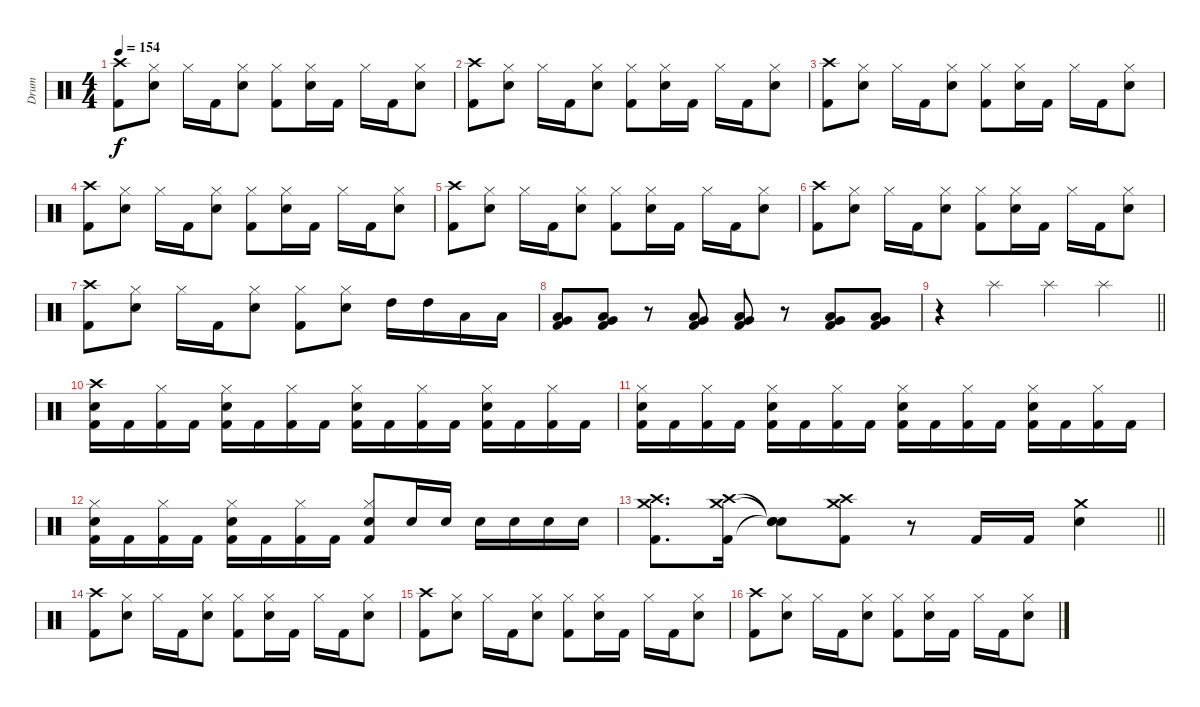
\track ("Drum" "Drum") {instrument percussion}
\staff {score}
\articulation defaults
\ts (4 4)
\tempo 154
\clef neutral
\ks c
("Crash high (hit)" "Kick (hit) 2").8{dy f} ("Hi-Hat (closed)" "Snare (hit) 2").8 "Hi-Hat (closed)".16 "Kick (hit) 2".16 ("Hi-Hat (closed)" "Snare (hit) 2").8 ("Hi-Hat (closed)" "Kick (hit) 2").8 ("Hi-Hat (closed)" "Snare (hit) 2").16 "Kick (hit) 2".16 "Hi-Hat (closed)".16 "Kick (hit) 2".16 ("Hi-Hat (closed)" "Snare (hit) 2").8 |
("Crash high (hit)" "Kick (hit) 2").8 ("Hi-Hat (closed)" "Snare (hit) 2").8 "Hi-Hat (closed)".16 "Kick (hit) 2".16 ("Hi-Hat (closed)" "Snare (hit) 2").8 ("Hi-Hat (closed)" "Kick (hit) 2").8 ("Hi-Hat (closed)" "Snare (hit) 2").16 "Kick (hit) 2".16 "Hi-Hat (closed)".16 "Kick (hit) 2".16 ("Hi-Hat (closed)" "Snare (hit) 2").8 |
("Crash high (hit)" "Kick (hit) 2").8 ("Hi-Hat (closed)" "Snare (hit) 2").8 "Hi-Hat (closed)".16 "Kick (hit) 2".16 ("Hi-Hat (closed)" "Snare (hit) 2").8 ("Hi-Hat (closed)" "Kick (hit) 2").8 ("Hi-Hat (closed)" "Snare (hit) 2").16 "Kick (hit) 2".16 "Hi-Hat (closed)".16 "Kick (hit) 2".16 ("Hi-Hat (closed)" "Snare (hit) 2").8 |
("Crash high (hit)" "Kick (hit) 2").8 ("Hi-Hat (closed)" "Snare (hit) 2").8 "Hi-Hat (closed)".16 "Kick (hit) 2".16 ("Hi-Hat (closed)" "Snare (hit) 2").8 ("Hi-Hat (closed)" "Kick (hit) 2").8 ("Hi-Hat (closed)" "Snare (hit) 2").16 "Kick (hit) 2".16 "Hi-Hat (closed)".16 "Kick (hit) 2".16 ("Hi-Hat (closed)" "Snare (hit) 2").8 |
("Crash high (hit)" "Kick (hit) 2").8 ("Hi-Hat (closed)" "Snare (hit) 2").8 "Hi-Hat (closed)".16 "Kick (hit) 2".16 ("Hi-Hat (closed)" "Snare (hit) 2").8 ("Hi-Hat (closed)" "Kick (hit) 2").8 ("Hi-Hat (closed)" "Snare (hit) 2").16 "Kick (hit) 2".16 "Hi-Hat (closed)".16 "Kick (hit) 2".16 ("Hi-Hat (closed)" "Snare (hit) 2").8 |
("Crash high (hit)" "Kick (hit) 2").8 ("Hi-Hat (closed)" "Snare (hit) 2").8 "Hi-Hat (closed)".16 "Kick (hit) 2".16 ("Hi-Hat (closed)" "Snare (hit) 2").8 ("Hi-Hat (closed)" "Kick (hit) 2").8 ("Hi-Hat (closed)" "Snare (hit) 2").16 "Kick (hit) 2".16 "Hi-Hat (closed)".16 "Kick (hit) 2".16 ("Hi-Hat (closed)" "Snare (hit) 2").8 |
("Crash high (hit)" "Kick (hit) 2").8 ("Hi-Hat (closed)" "Snare (hit) 2").8 "Hi-Hat (closed)".16 "Kick (hit) 2".16 ("Hi-Hat (closed)" "Snare (hit) 2").8 ("Hi-Hat (closed)" "Kick (hit) 2").8 ("Hi-Hat (closed)" "Snare (hit) 2").8 "High Tom (hit)".16 "High Tom (hit)".16 "Low Tom (hit)".16 "Low Tom (hit)".16 |
("Very Low Tom (hit)" "Low Floor Tom (hit)" "Kick (hit) 2").8 ("Very Low Tom (hit)" "Low Floor Tom (hit)" "Kick (hit) 2").8 r.8 ("Very Low Tom (hit)" "Low Floor Tom (hit)" "Kick (hit) 2").8 ("Very Low Tom (hit)" "Low Floor Tom (hit)" "Kick (hit) 2").8 r.8 ("Very Low Tom (hit)" "Low Floor Tom (hit)" "Kick (hit) 2").8 ("Very Low Tom (hit)" "Low Floor Tom (hit)" "Kick (hit) 2").8 |
\barLineRight lightlight
r.4 "Splash (hit)".4 "Splash (hit)".4 "Splash (hit)".4 |
("Crash high (hit)" "Snare (hit) 2" "Kick (hit) 2").16 "Kick (hit) 2".16 ("Hi-Hat (closed)" "Kick (hit) 2").16 "Kick (hit) 2".16 ("Hi-Hat (closed)" "Snare (hit) 2" "Kick (hit) 2").16 "Kick (hit) 2".16 ("Hi-Hat (closed)" "Kick (hit) 2").16 "Kick (hit) 2".16 ("Hi-Hat (closed)" "Snare (hit) 2" "Kick (hit) 2").16 "Kick (hit) 2".16 ("Hi-Hat (closed)" "Kick (hit) 2").16 "Kick (hit) 2".16 ("Hi-Hat (closed)" "Snare (hit) 2" "Kick (hit) 2").16 "Kick (hit) 2".16 ("Hi-Hat (closed)" "Kick (hit) 2").16 "Kick (hit) 2".16 |
("Hi-Hat (closed)" "Snare (hit) 2" "Kick (hit) 2").16 "Kick (hit) 2".16 ("Hi-Hat (closed)" "Kick (hit) 2").16 "Kick (hit) 2".16 ("Hi-Hat (closed)" "Snare (hit) 2" "Kick (hit) 2").16 "Kick (hit) 2".16 ("Hi-Hat (closed)" "Kick (hit) 2").16 "Kick (hit) 2".16 ("Hi-Hat (closed)" "Snare (hit) 2" "Kick (hit) 2").16 "Kick (hit) 2".16 ("Hi-Hat (closed)" "Kick (hit) 2").16 "Kick (hit) 2".16 ("Hi-Hat (closed)" "Snare (hit) 2" "Kick (hit) 2").16 "Kick (hit) 2".16 ("Hi-Hat (closed)" "Kick (hit) 2").16 "Kick (hit) 2".16 |
("Hi-Hat (closed)" "Snare (hit) 2" "Kick (hit) 2").16 "Kick (hit) 2".16 ("Hi-Hat (closed)" "Kick (hit) 2").16 "Kick (hit) 2".16 ("Hi-Hat (closed)" "Snare (hit) 2" "Kick (hit) 2").16 "Kick (hit) 2".16 ("Hi-Hat (closed)" "Kick (hit) 2").16 "Kick (hit) 2".16 ("Hi-Hat (closed)" "Snare (hit) 2" "Kick (hit) 2").8 "Snare (hit) 2".16 "Snare (hit) 2".16 "Snare (hit) 2".16 "Snare (hit) 2".16 "Snare (hit) 2".16 "Snare (hit) 2".16 |
\barLineRight lightlight
("Crash high (hit)" "Crash medium (hit)" "Kick (hit) 2").8{d} ("Crash high (hit)" "Crash medium (hit)" "Kick (hit) 2").16 ("Snare (hit)"{t} "Snare (hit)"{t} "Snare (hit)"{t}).8 ("Crash high (hit)" "Crash medium (hit)" "Kick (hit) 2").8 r.8 "Kick (hit) 2".16 "Kick (hit) 2".16 ("Crash medium (hit)" "Snare (hit) 2").4 |
("Crash high (hit)" "Kick (hit) 2").8 ("Hi-Hat (closed)" "Snare (hit) 2").8 "Hi-Hat (closed)".16 "Kick (hit) 2".16 ("Hi-Hat (closed)" "Snare (hit) 2").8 ("Hi-Hat (closed)" "Kick (hit) 2").8 ("Hi-Hat (closed)" "Snare (hit) 2").16 "Kick (hit) 2".16 "Hi-Hat (closed)".16 "Kick (hit) 2".16 ("Hi-Hat (closed)" "Snare (hit) 2").8 |
("Crash high (hit)" "Kick (hit) 2").8 ("Hi-Hat (closed)" "Snare (hit) 2").8 "Hi-Hat (closed)".16 "Kick (hit) 2".16 ("Hi-Hat (closed)" "Snare (hit) 2").8 ("Hi-Hat (closed)" "Kick (hit) 2").8 ("Hi-Hat (closed)" "Snare (hit) 2").16 "Kick (hit) 2".16 "Hi-Hat (closed)".16 "Kick (hit) 2".16 ("Hi-Hat (closed)" "Snare (hit) 2").8 |
("Crash high (hit)" "Kick (hit) 2").8 ("Hi-Hat (closed)" "Snare (hit) 2").8 "Hi-Hat (closed)".16 "Kick (hit) 2".16 ("Hi-Hat (closed)" "Snare (hit) 2").8 ("Hi-Hat (closed)" "Kick (hit) 2").8 ("Hi-Hat (closed)" "Snare (hit) 2").16 "Kick (hit) 2".16 "Hi-Hat (closed)".16 "Kick (hit) 2".16 ("Hi-Hat (closed)" "Snare (hit) 2").8
